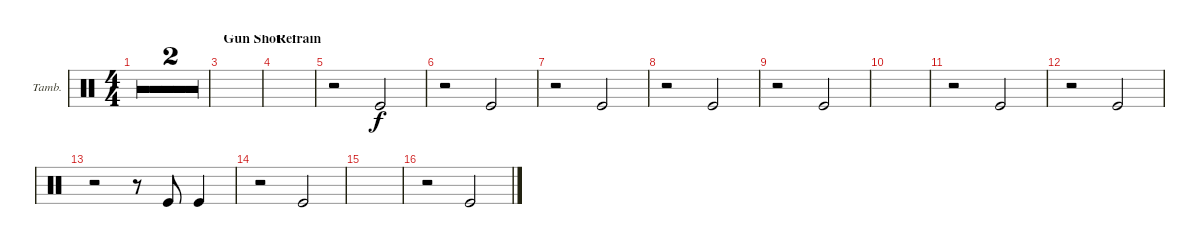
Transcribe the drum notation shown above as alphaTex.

\bracketExtendMode groupsimilarinstruments
\firstSystemTrackNameOrientation horizontal
\otherSystemsTrackNameOrientation horizontal
\track ("Ray Cooper" "Tamb.") {multiBarRest instrument percussion}
\staff {score}
\articulation defaults
\ts (4 4)
\tempo 116
\clef neutral
\ks c
|
\barLineRight lightlight
|
\section ("" "Gun Shot")
|
\section ("" "Refrain")
|
r.2 "Kick (hit)".2 |
r.2 "Kick (hit)".2 |
r.2 "Kick (hit)".2 |
r.2 "Kick (hit)".2 |
r.2 "Kick (hit)".2 |
|
r.2 "Kick (hit)".2 |
r.2 "Kick (hit)".2 |
r.2 r.8 "Kick (hit)".8 "Kick (hit)".4 |
r.2 "Kick (hit)".2 |
|
r.2 "Kick (hit)".2
